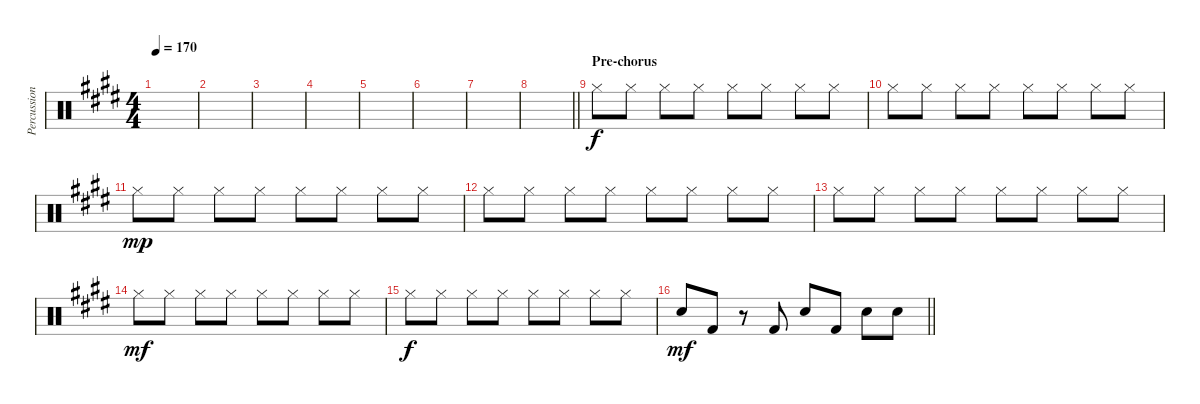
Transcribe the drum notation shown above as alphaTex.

\track ("Percussion" "Percussion") {instrument percussion}
\staff {score}
\articulation defaults
\ts (4 4)
\tempo 170
\clef neutral
\ks c#minor
|
|
|
|
|
|
|
\barLineRight lightlight
|
\section ("" "Pre-chorus")
"Hi-Hat (closed)".8 "Hi-Hat (closed)".8 "Hi-Hat (closed)".8 "Hi-Hat (closed)".8 "Hi-Hat (closed)".8 "Hi-Hat (closed)".8 "Hi-Hat (closed)".8 "Hi-Hat (closed)".8 |
"Hi-Hat (closed)".8 "Hi-Hat (closed)".8 "Hi-Hat (closed)".8 "Hi-Hat (closed)".8 "Hi-Hat (closed)".8 "Hi-Hat (closed)".8 "Hi-Hat (closed)".8 "Hi-Hat (closed)".8 |
"Hi-Hat (closed)".8{dy mp} "Hi-Hat (closed)".8 "Hi-Hat (closed)".8 "Hi-Hat (closed)".8 "Hi-Hat (closed)".8 "Hi-Hat (closed)".8 "Hi-Hat (closed)".8 "Hi-Hat (closed)".8 |
"Hi-Hat (closed)".8 "Hi-Hat (closed)".8 "Hi-Hat (closed)".8 "Hi-Hat (closed)".8 "Hi-Hat (closed)".8 "Hi-Hat (closed)".8 "Hi-Hat (closed)".8 "Hi-Hat (closed)".8 |
"Hi-Hat (closed)".8 "Hi-Hat (closed)".8 "Hi-Hat (closed)".8 "Hi-Hat (closed)".8 "Hi-Hat (closed)".8 "Hi-Hat (closed)".8 "Hi-Hat (closed)".8 "Hi-Hat (closed)".8 |
"Hi-Hat (closed)".8{dy mf} "Hi-Hat (closed)".8 "Hi-Hat (closed)".8 "Hi-Hat (closed)".8 "Hi-Hat (closed)".8 "Hi-Hat (closed)".8 "Hi-Hat (closed)".8 "Hi-Hat (closed)".8 |
"Hi-Hat (closed)".8{dy f} "Hi-Hat (closed)".8 "Hi-Hat (closed)".8 "Hi-Hat (closed)".8 "Hi-Hat (closed)".8 "Hi-Hat (closed)".8 "Hi-Hat (closed)".8 "Hi-Hat (closed)".8 |
\barLineRight lightlight "Snare (hit) 2".8{dy mf} "Kick (hit) 2".8
r.8 "Kick (hit) 2".8 "Snare (hit) 2".8 "Kick (hit) 2".8 "Snare (hit) 2".8 "Snare (hit) 2".8
